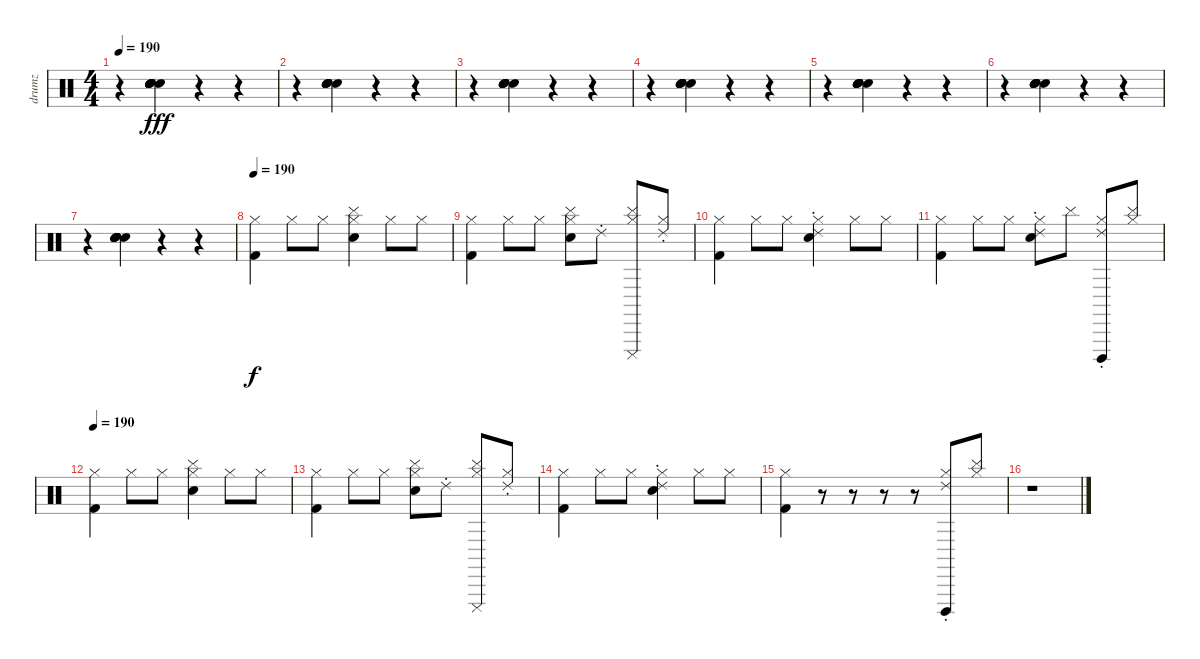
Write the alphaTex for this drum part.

\track ("drumz" "drumz") {instrument percussion}
\staff {score}
\articulation defaults
\ts (4 4)
\tempo 190
\clef neutral
\ks c
r.4{dy fff} ("Hand Clap (hit)" "Hand Clap (hit)" "Hand Clap (hit)" "Hand Clap (hit)" "Hand Clap (hit)" "Hand Clap (hit)").4 r.4 r.4 |
r.4 ("Hand Clap (hit)" "Hand Clap (hit)" "Hand Clap (hit)" "Hand Clap (hit)" "Hand Clap (hit)" "Hand Clap (hit)").4 r.4 r.4 |
r.4 ("Hand Clap (hit)" "Hand Clap (hit)" "Hand Clap (hit)" "Hand Clap (hit)" "Hand Clap (hit)" "Hand Clap (hit)").4 r.4 r.4 |
r.4 ("Hand Clap (hit)" "Hand Clap (hit)" "Hand Clap (hit)" "Hand Clap (hit)" "Hand Clap (hit)" "Hand Clap (hit)").4 r.4 r.4 |
r.4 ("Hand Clap (hit)" "Hand Clap (hit)" "Hand Clap (hit)" "Hand Clap (hit)" "Hand Clap (hit)" "Hand Clap (hit)").4 r.4 r.4 |
r.4 ("Hand Clap (hit)" "Hand Clap (hit)" "Hand Clap (hit)" "Hand Clap (hit)" "Hand Clap (hit)" "Hand Clap (hit)").4 r.4 r.4 |
r.4 ("Hand Clap (hit)" "Hand Clap (hit)" "Hand Clap (hit)" "Hand Clap (hit)" "Hand Clap (hit)" "Hand Clap (hit)").4 r.4 r.4 |
\tempo 190
("Hi-Hat (closed)" "Kick (hit) 2").4{dy f} "Hi-Hat (closed)".8 "Hi-Hat (closed)".8 ("Cymbal (hit)" "Hi-Hat (closed)" "Hand Clap (hit)").4 "Hi-Hat (closed)".8 "Hi-Hat (closed)".8 |
("Hi-Hat (closed)" "Kick (hit) 2").4 "Hi-Hat (closed)".8 "Hi-Hat (closed)".8 ("Cymbal (hit)" "Hi-Hat (closed)" "Hand Clap (hit)").8 "Ride (choke) 2".8 ("Cymbal (hit)" "Cuica (mute)" "Hi-Hat (closed)").8 ("Ride (choke) 2" "Hi-Hat (closed)").8 |
("Hi-Hat (closed)" "Kick (hit) 2").4 "Hi-Hat (closed)".8 "Hi-Hat (closed)".8 ("Ride (choke) 2" "Hi-Hat (closed)" "Hand Clap (hit)").4 "Hi-Hat (closed)".8 "Hi-Hat (closed)".8 |
("Hi-Hat (closed)" "Kick (hit) 2").4 "Hi-Hat (closed)".8 "Hi-Hat (closed)".8 ("Ride (choke) 2" "Hi-Hat (closed)" "Hand Clap (hit)").8 "Cymbal (hit)".8 ("Ride (choke) 2" "Cuica (open)" "Hi-Hat (closed)").8 ("Cymbal (hit)" "Hi-Hat (closed)").8 |
\tempo 190
("Hi-Hat (closed)" "Kick (hit) 2").4 "Hi-Hat (closed)".8 "Hi-Hat (closed)".8 ("Cymbal (hit)" "Hi-Hat (closed)" "Hand Clap (hit)").4 "Hi-Hat (closed)".8 "Hi-Hat (closed)".8 |
("Hi-Hat (closed)" "Kick (hit) 2").4 "Hi-Hat (closed)".8 "Hi-Hat (closed)".8 ("Cymbal (hit)" "Hi-Hat (closed)" "Hand Clap (hit)").8 "Ride (choke) 2".8 ("Cymbal (hit)" "Cuica (mute)" "Hi-Hat (closed)").8 ("Ride (choke) 2" "Hi-Hat (closed)").8 |
("Hi-Hat (closed)" "Kick (hit) 2").4 "Hi-Hat (closed)".8 "Hi-Hat (closed)".8 ("Ride (choke) 2" "Hi-Hat (closed)" "Hand Clap (hit)").4 "Hi-Hat (closed)".8 "Hi-Hat (closed)".8 |
("Hi-Hat (closed)" "Kick (hit) 2").4 r.8 r.8 r.8 r.8 ("Ride (choke) 2" "Cuica (open)" "Hi-Hat (closed)").8 ("Cymbal (hit)" "Hi-Hat (closed)").8 |
r.1
